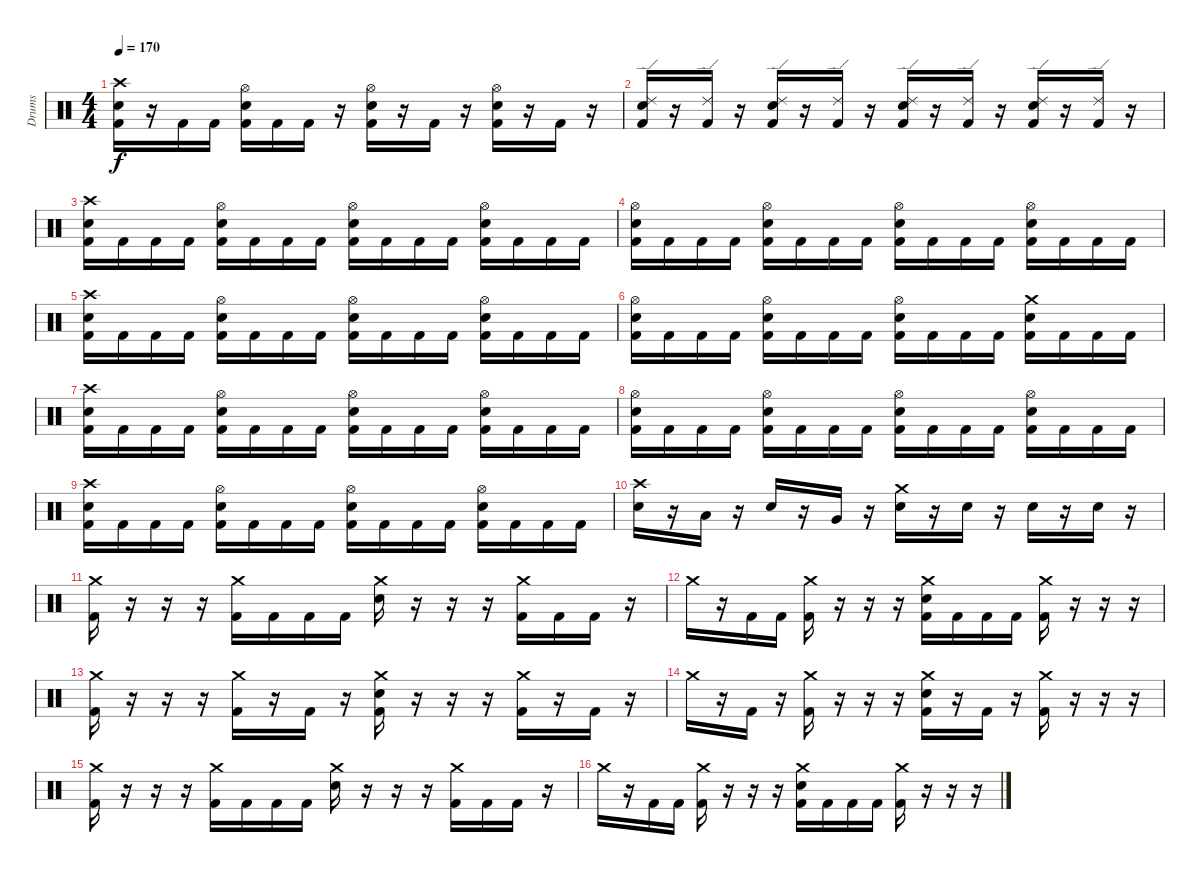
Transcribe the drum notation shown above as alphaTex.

\track ("Drums" "Drums") {instrument percussion}
\staff {score}
\articulation defaults
\ts (4 4)
\tempo 170
\clef neutral
\ks c
("Crash high (hit)" "Electric Snare (hit)" "Kick (hit) 2").16{dy f} r.16 "Kick (hit) 2".16 "Kick (hit) 2".16 ("Hi-Hat (open)" "Electric Snare (hit)" "Kick (hit) 2").16 "Kick (hit) 2".16 "Kick (hit) 2".16 r.16 ("Hi-Hat (open)" "Electric Snare (hit)" "Kick (hit) 2").16 r.16 "Kick (hit) 2".16 r.16 ("Hi-Hat (open)" "Electric Snare (hit)" "Kick (hit) 2").16 r.16 "Kick (hit) 2".16 r.16 |
("Ride (edge) 2" "Electric Snare (hit)" "Kick (hit) 2").16 r.16 ("Ride (edge) 2" "Kick (hit) 2").16 r.16 ("Ride (edge) 2" "Electric Snare (hit)" "Kick (hit) 2").16 r.16 ("Ride (edge) 2" "Kick (hit) 2").16 r.16 ("Ride (edge) 2" "Electric Snare (hit)" "Kick (hit) 2").16 r.16 ("Ride (edge) 2" "Kick (hit) 2").16 r.16 ("Ride (edge) 2" "Electric Snare (hit)" "Kick (hit) 2").16 r.16 ("Ride (edge) 2" "Kick (hit) 2").16 r.16 |
("Crash high (hit)" "Electric Snare (hit)" "Kick (hit) 2").16 "Kick (hit) 2".16 "Kick (hit) 2".16 "Kick (hit) 2".16 ("Hi-Hat (open)" "Electric Snare (hit)" "Kick (hit) 2").16 "Kick (hit) 2".16 "Kick (hit) 2".16 "Kick (hit) 2".16 ("Hi-Hat (open)" "Electric Snare (hit)" "Kick (hit) 2").16 "Kick (hit) 2".16 "Kick (hit) 2".16 "Kick (hit) 2".16 ("Hi-Hat (open)" "Electric Snare (hit)" "Kick (hit) 2").16 "Kick (hit) 2".16 "Kick (hit) 2".16 "Kick (hit) 2".16 |
("Hi-Hat (open)" "Electric Snare (hit)" "Kick (hit) 2").16 "Kick (hit) 2".16 "Kick (hit) 2".16 "Kick (hit) 2".16 ("Hi-Hat (open)" "Electric Snare (hit)" "Kick (hit) 2").16 "Kick (hit) 2".16 "Kick (hit) 2".16 "Kick (hit) 2".16 ("Hi-Hat (open)" "Electric Snare (hit)" "Kick (hit) 2").16 "Kick (hit) 2".16 "Kick (hit) 2".16 "Kick (hit) 2".16 ("Hi-Hat (open)" "Electric Snare (hit)" "Kick (hit) 2").16 "Kick (hit) 2".16 "Kick (hit) 2".16 "Kick (hit) 2".16 |
("Crash high (hit)" "Electric Snare (hit)" "Kick (hit) 2").16 "Kick (hit) 2".16 "Kick (hit) 2".16 "Kick (hit) 2".16 ("Hi-Hat (open)" "Electric Snare (hit)" "Kick (hit) 2").16 "Kick (hit) 2".16 "Kick (hit) 2".16 "Kick (hit) 2".16 ("Hi-Hat (open)" "Electric Snare (hit)" "Kick (hit) 2").16 "Kick (hit) 2".16 "Kick (hit) 2".16 "Kick (hit) 2".16 ("Hi-Hat (open)" "Electric Snare (hit)" "Kick (hit) 2").16 "Kick (hit) 2".16 "Kick (hit) 2".16 "Kick (hit) 2".16 |
("Hi-Hat (open)" "Electric Snare (hit)" "Kick (hit) 2").16 "Kick (hit) 2".16 "Kick (hit) 2".16 "Kick (hit) 2".16 ("Hi-Hat (open)" "Electric Snare (hit)" "Kick (hit) 2").16 "Kick (hit) 2".16 "Kick (hit) 2".16 "Kick (hit) 2".16 ("Hi-Hat (open)" "Electric Snare (hit)" "Kick (hit) 2").16 "Kick (hit) 2".16 "Kick (hit) 2".16 "Kick (hit) 2".16 ("Crash medium (hit)" "Electric Snare (hit)" "Kick (hit) 2").16 "Kick (hit) 2".16 "Kick (hit) 2".16 "Kick (hit) 2".16 |
("Crash high (hit)" "Electric Snare (hit)" "Kick (hit) 2").16 "Kick (hit) 2".16 "Kick (hit) 2".16 "Kick (hit) 2".16 ("Hi-Hat (open)" "Electric Snare (hit)" "Kick (hit) 2").16 "Kick (hit) 2".16 "Kick (hit) 2".16 "Kick (hit) 2".16 ("Hi-Hat (open)" "Electric Snare (hit)" "Kick (hit) 2").16 "Kick (hit) 2".16 "Kick (hit) 2".16 "Kick (hit) 2".16 ("Hi-Hat (open)" "Electric Snare (hit)" "Kick (hit) 2").16 "Kick (hit) 2".16 "Kick (hit) 2".16 "Kick (hit) 2".16 |
("Hi-Hat (open)" "Electric Snare (hit)" "Kick (hit) 2").16 "Kick (hit) 2".16 "Kick (hit) 2".16 "Kick (hit) 2".16 ("Hi-Hat (open)" "Electric Snare (hit)" "Kick (hit) 2").16 "Kick (hit) 2".16 "Kick (hit) 2".16 "Kick (hit) 2".16 ("Hi-Hat (open)" "Electric Snare (hit)" "Kick (hit) 2").16 "Kick (hit) 2".16 "Kick (hit) 2".16 "Kick (hit) 2".16 ("Hi-Hat (open)" "Electric Snare (hit)" "Kick (hit) 2").16 "Kick (hit) 2".16 "Kick (hit) 2".16 "Kick (hit) 2".16 |
("Crash high (hit)" "Electric Snare (hit)" "Kick (hit) 2").16 "Kick (hit) 2".16 "Kick (hit) 2".16 "Kick (hit) 2".16 ("Hi-Hat (open)" "Electric Snare (hit)" "Kick (hit) 2").16 "Kick (hit) 2".16 "Kick (hit) 2".16 "Kick (hit) 2".16 ("Hi-Hat (open)" "Electric Snare (hit)" "Kick (hit) 2").16 "Kick (hit) 2".16 "Kick (hit) 2".16 "Kick (hit) 2".16 ("Hi-Hat (open)" "Electric Snare (hit)" "Kick (hit) 2").16 "Kick (hit) 2".16 "Kick (hit) 2".16 "Kick (hit) 2".16 |
("Crash high (hit)" "Electric Snare (hit)").16 r.16 "Low Tom (hit)".16 r.16 "Electric Snare (hit)".16 r.16 "Very Low Tom (hit)".16 r.16 ("Crash medium (hit)" "Electric Snare (hit)").16 r.16 "Electric Snare (hit)".16 r.16 "Electric Snare (hit)".16 r.16 "Electric Snare (hit)".16 r.16 |
("Crash medium (hit)" "Kick (hit) 2").16 r.16 r.16 r.16 ("Crash medium (hit)" "Kick (hit) 2").16 "Kick (hit) 2".16 "Kick (hit) 2".16 "Kick (hit) 2".16 ("Crash medium (hit)" "Electric Snare (hit)").16 r.16 r.16 r.16 ("Crash medium (hit)" "Kick (hit) 2").16 "Kick (hit) 2".16 "Kick (hit) 2".16 r.16 |
"Crash medium (hit)".16 r.16 "Kick (hit) 2".16 "Kick (hit) 2".16 ("Crash medium (hit)" "Kick (hit) 2").16 r.16 r.16 r.16 ("Crash medium (hit)" "Electric Snare (hit)" "Kick (hit) 2").16 "Kick (hit) 2".16 "Kick (hit) 2".16 "Kick (hit) 2".16 ("Crash medium (hit)" "Kick (hit) 2").16 r.16 r.16 r.16 |
("Crash medium (hit)" "Kick (hit) 2").16 r.16 r.16 r.16 ("Crash medium (hit)" "Kick (hit) 2").16 r.16 "Kick (hit) 2".16 r.16 ("Crash medium (hit)" "Electric Snare (hit)" "Kick (hit) 2").16 r.16 r.16 r.16 ("Crash medium (hit)" "Kick (hit) 2").16 r.16 "Kick (hit) 2".16 r.16 |
"Crash medium (hit)".16 r.16 "Kick (hit) 2".16 r.16 ("Crash medium (hit)" "Kick (hit) 2").16 r.16 r.16 r.16 ("Crash medium (hit)" "Electric Snare (hit)" "Kick (hit) 2").16 r.16 "Kick (hit) 2".16 r.16 ("Crash medium (hit)" "Kick (hit) 2").16 r.16 r.16 r.16 |
("Crash medium (hit)" "Kick (hit) 2").16 r.16 r.16 r.16 ("Crash medium (hit)" "Kick (hit) 2").16 "Kick (hit) 2".16 "Kick (hit) 2".16 "Kick (hit) 2".16 ("Crash medium (hit)" "Electric Snare (hit)").16 r.16 r.16 r.16 ("Crash medium (hit)" "Kick (hit) 2").16 "Kick (hit) 2".16 "Kick (hit) 2".16 r.16 |
"Crash medium (hit)".16 r.16 "Kick (hit) 2".16 "Kick (hit) 2".16 ("Crash medium (hit)" "Kick (hit) 2").16 r.16 r.16 r.16 ("Crash medium (hit)" "Electric Snare (hit)" "Kick (hit) 2").16 "Kick (hit) 2".16 "Kick (hit) 2".16 "Kick (hit) 2".16 ("Crash medium (hit)" "Kick (hit) 2").16 r.16 r.16 r.16
